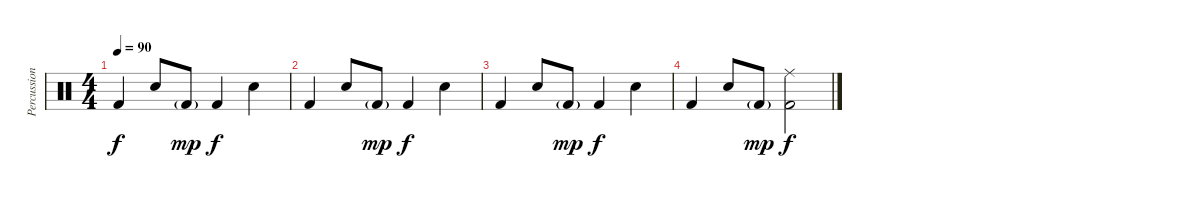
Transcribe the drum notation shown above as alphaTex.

\track ("Percussion" "Percussion") {instrument percussion}
\staff {score}
\articulation defaults
\ts (4 4)
\tempo 90
\clef neutral
\ks c "Kick (hit) 2".4{dy f} "Snare (hit) 2".8 "Kick (hit) 2"{g}.8{dy mp} "Kick (hit) 2".4{dy f} "Snare (hit) 2".4
|
"Kick (hit) 2".4 "Snare (hit) 2".8 "Kick (hit) 2"{g}.8{dy mp} "Kick (hit) 2".4{dy f} "Snare (hit) 2".4 |
"Kick (hit) 2".4 "Snare (hit) 2".8 "Kick (hit) 2"{g}.8{dy mp} "Kick (hit) 2".4{dy f} "Snare (hit) 2".4 |
"Kick (hit) 2".4 "Snare (hit) 2".8 "Kick (hit) 2"{g}.8{dy mp} ("Ride (middle)" "Kick (hit) 2").2{dy f}
